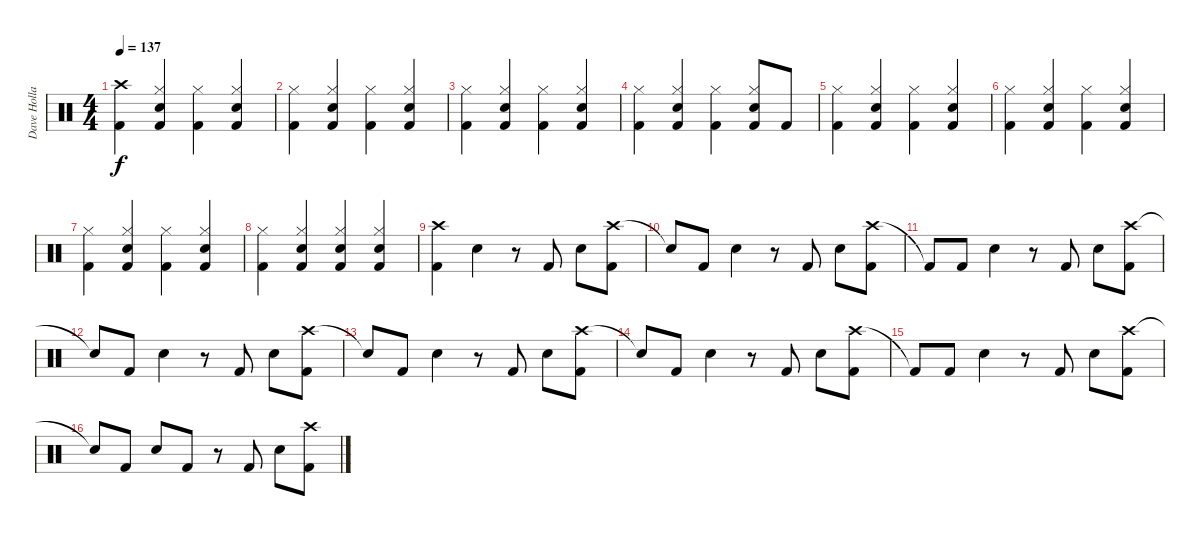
\track ("Dave Holland" "Dave Holla") {instrument percussion}
\staff {score}
\articulation defaults
\ts (4 4)
\tempo 137
\clef neutral
\ks c
("Crash high (hit)" "Kick (hit) 2").4{dy f} ("Hi-Hat (closed)" "Snare (hit) 2" "Kick (hit) 2").4 ("Hi-Hat (closed)" "Kick (hit) 2").4 ("Hi-Hat (closed)" "Snare (hit) 2" "Kick (hit) 2").4 |
("Hi-Hat (closed)" "Kick (hit) 2").4 ("Hi-Hat (closed)" "Snare (hit) 2" "Kick (hit) 2").4 ("Hi-Hat (closed)" "Kick (hit) 2").4 ("Hi-Hat (closed)" "Snare (hit) 2" "Kick (hit) 2").4 |
("Hi-Hat (closed)" "Kick (hit) 2").4 ("Hi-Hat (closed)" "Snare (hit) 2" "Kick (hit) 2").4 ("Hi-Hat (closed)" "Kick (hit) 2").4 ("Hi-Hat (closed)" "Snare (hit) 2" "Kick (hit) 2").4 |
("Hi-Hat (closed)" "Kick (hit) 2").4 ("Hi-Hat (closed)" "Snare (hit) 2" "Kick (hit) 2").4 ("Hi-Hat (closed)" "Kick (hit) 2").4 ("Hi-Hat (closed)" "Snare (hit) 2" "Kick (hit) 2").8 "Kick (hit) 2".8 |
("Hi-Hat (closed)" "Kick (hit) 2").4 ("Hi-Hat (closed)" "Snare (hit) 2" "Kick (hit) 2").4 ("Hi-Hat (closed)" "Kick (hit) 2").4 ("Hi-Hat (closed)" "Snare (hit) 2" "Kick (hit) 2").4 |
("Hi-Hat (closed)" "Kick (hit) 2").4 ("Hi-Hat (closed)" "Snare (hit) 2" "Kick (hit) 2").4 ("Hi-Hat (closed)" "Kick (hit) 2").4 ("Hi-Hat (closed)" "Snare (hit) 2" "Kick (hit) 2").4 |
("Hi-Hat (closed)" "Kick (hit) 2").4 ("Hi-Hat (closed)" "Snare (hit) 2" "Kick (hit) 2").4 ("Hi-Hat (closed)" "Kick (hit) 2").4 ("Hi-Hat (closed)" "Snare (hit) 2" "Kick (hit) 2").4 |
("Hi-Hat (closed)" "Kick (hit) 2").4 ("Hi-Hat (closed)" "Snare (hit) 2" "Kick (hit) 2").4 ("Hi-Hat (closed)" "Snare (hit) 2" "Kick (hit) 2").4 ("Hi-Hat (closed)" "Snare (hit) 2" "Kick (hit) 2").4 |
("Crash high (hit)" "Kick (hit) 2").4 "Snare (hit) 2".4 r.8 "Kick (hit) 2".8 "Snare (hit) 2".8 ("Crash high (hit)" "Kick (hit) 2").8 |
"Snare (hit)"{t}.8 "Kick (hit) 2".8 "Snare (hit) 2".4 r.8 "Kick (hit) 2".8 "Snare (hit) 2".8 ("Crash high (hit)" "Kick (hit) 2").8 |
"Kick (hit) 2"{t}.8 "Kick (hit) 2".8 "Snare (hit) 2".4 r.8 "Kick (hit) 2".8 "Snare (hit) 2".8 ("Crash high (hit)" "Kick (hit) 2").8 |
"Snare (hit)"{t}.8 "Kick (hit) 2".8 "Snare (hit) 2".4 r.8 "Kick (hit) 2".8 "Snare (hit) 2".8 ("Crash high (hit)" "Kick (hit) 2").8 |
"Snare (hit)"{t}.8 "Kick (hit) 2".8 "Snare (hit) 2".4 r.8 "Kick (hit) 2".8 "Snare (hit) 2".8 ("Crash high (hit)" "Kick (hit) 2").8 |
"Snare (hit)"{t}.8 "Kick (hit) 2".8 "Snare (hit) 2".4 r.8 "Kick (hit) 2".8 "Snare (hit) 2".8 ("Crash high (hit)" "Kick (hit) 2").8 |
"Kick (hit) 2"{t}.8 "Kick (hit) 2".8 "Snare (hit) 2".4 r.8 "Kick (hit) 2".8 "Snare (hit) 2".8 ("Crash high (hit)" "Kick (hit) 2").8 |
"Snare (hit)"{t}.8 "Kick (hit) 2".8 "Snare (hit) 2".8 "Kick (hit) 2".8 r.8 "Kick (hit) 2".8 "Snare (hit) 2".8 ("Crash high (hit)" "Kick (hit) 2").8
